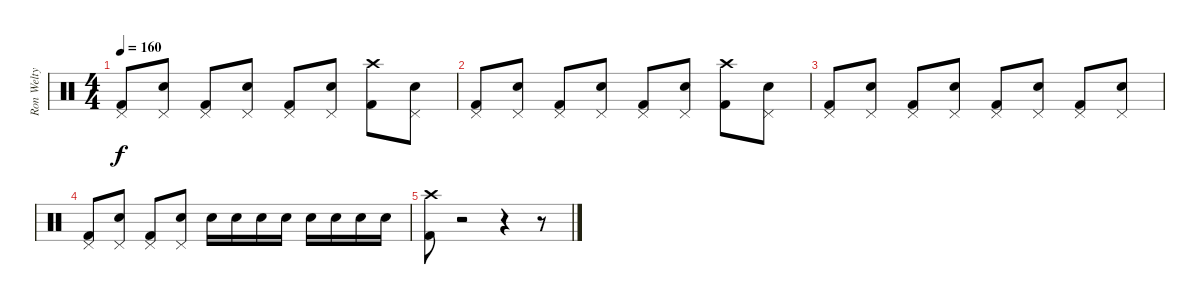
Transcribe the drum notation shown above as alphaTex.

\track ("Ron Welty" "Ron Welty") {instrument percussion}
\staff {score}
\articulation defaults
\ts (4 4)
\tempo 160
\clef neutral
\ks c
("Pedal Hi-Hat (hit)" "Kick (hit) 2").8{dy f} ("Pedal Hi-Hat (hit)" "Snare (hit) 2").8 ("Pedal Hi-Hat (hit)" "Kick (hit) 2").8 ("Pedal Hi-Hat (hit)" "Snare (hit) 2").8 ("Pedal Hi-Hat (hit)" "Kick (hit) 2").8 ("Pedal Hi-Hat (hit)" "Snare (hit) 2").8 ("Crash high (hit)" "Kick (hit) 2").8 ("Pedal Hi-Hat (hit)" "Snare (hit) 2").8 |
("Pedal Hi-Hat (hit)" "Kick (hit) 2").8 ("Pedal Hi-Hat (hit)" "Snare (hit) 2").8 ("Pedal Hi-Hat (hit)" "Kick (hit) 2").8 ("Pedal Hi-Hat (hit)" "Snare (hit) 2").8 ("Pedal Hi-Hat (hit)" "Kick (hit) 2").8 ("Pedal Hi-Hat (hit)" "Snare (hit) 2").8 ("Crash high (hit)" "Kick (hit) 2").8 ("Pedal Hi-Hat (hit)" "Snare (hit) 2").8 |
("Pedal Hi-Hat (hit)" "Kick (hit) 2").8 ("Pedal Hi-Hat (hit)" "Snare (hit) 2").8 ("Pedal Hi-Hat (hit)" "Kick (hit) 2").8 ("Pedal Hi-Hat (hit)" "Snare (hit) 2").8 ("Pedal Hi-Hat (hit)" "Kick (hit) 2").8 ("Pedal Hi-Hat (hit)" "Snare (hit) 2").8 ("Pedal Hi-Hat (hit)" "Kick (hit) 2").8 ("Pedal Hi-Hat (hit)" "Snare (hit) 2").8 |
("Pedal Hi-Hat (hit)" "Kick (hit) 2").8 ("Pedal Hi-Hat (hit)" "Snare (hit) 2").8 ("Pedal Hi-Hat (hit)" "Kick (hit) 2").8 ("Pedal Hi-Hat (hit)" "Snare (hit) 2").8 "Snare (hit) 2".16 "Snare (hit) 2".16 "Snare (hit) 2".16 "Snare (hit) 2".16 "Snare (hit) 2".16 "Snare (hit) 2".16 "Snare (hit) 2".16 "Snare (hit) 2".16 |
("Crash high (hit)" "Kick (hit) 2").8 r.2 r.4 r.8
